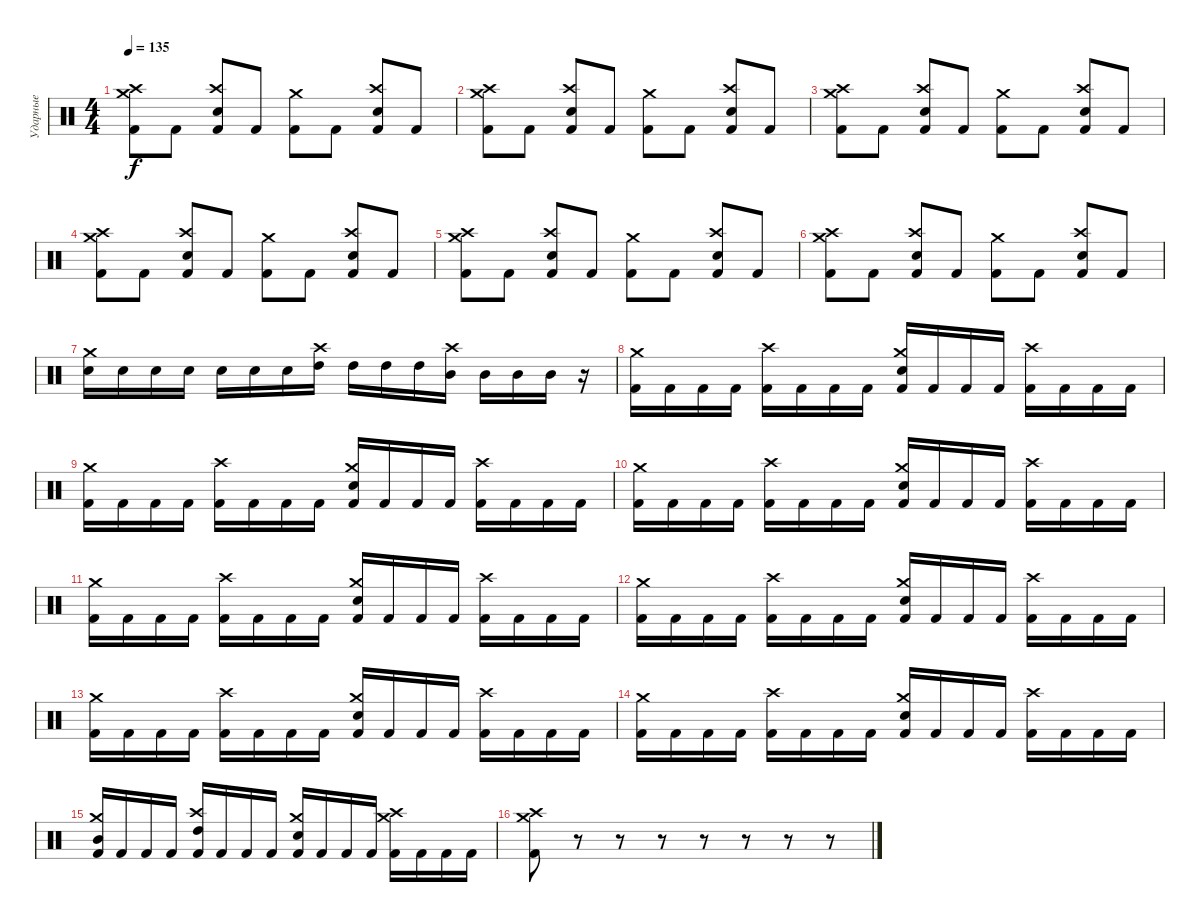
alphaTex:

\track ("Ударные" "Ударные") {instrument percussion}
\staff {score}
\articulation defaults
\ts (4 4)
\tempo 135
\clef neutral
\ks c
("Kick (hit) 2" "Crash medium (hit)" "Crash high (hit)").8{dy f} "Kick (hit) 2".8 ("Kick (hit) 2" "Electric Snare (hit)" "Crash high (hit)").8 "Kick (hit) 2".8 ("Kick (hit) 2" "Crash medium (hit)").8 "Kick (hit) 2".8 ("Kick (hit) 2" "Electric Snare (hit)" "Crash high (hit)").8 "Kick (hit) 2".8 |
("Kick (hit) 2" "Crash medium (hit)" "Crash high (hit)").8 "Kick (hit) 2".8 ("Kick (hit) 2" "Electric Snare (hit)" "Crash high (hit)").8 "Kick (hit) 2".8 ("Kick (hit) 2" "Crash medium (hit)").8 "Kick (hit) 2".8 ("Kick (hit) 2" "Electric Snare (hit)" "Crash high (hit)").8 "Kick (hit) 2".8 |
("Kick (hit) 2" "Crash medium (hit)" "Crash high (hit)").8 "Kick (hit) 2".8 ("Kick (hit) 2" "Electric Snare (hit)" "Crash high (hit)").8 "Kick (hit) 2".8 ("Kick (hit) 2" "Crash medium (hit)").8 "Kick (hit) 2".8 ("Kick (hit) 2" "Electric Snare (hit)" "Crash high (hit)").8 "Kick (hit) 2".8 |
("Kick (hit) 2" "Crash medium (hit)" "Crash high (hit)").8 "Kick (hit) 2".8 ("Kick (hit) 2" "Electric Snare (hit)" "Crash high (hit)").8 "Kick (hit) 2".8 ("Kick (hit) 2" "Crash medium (hit)").8 "Kick (hit) 2".8 ("Kick (hit) 2" "Electric Snare (hit)" "Crash high (hit)").8 "Kick (hit) 2".8 |
("Kick (hit) 2" "Crash medium (hit)" "Crash high (hit)").8 "Kick (hit) 2".8 ("Kick (hit) 2" "Electric Snare (hit)" "Crash high (hit)").8 "Kick (hit) 2".8 ("Kick (hit) 2" "Crash medium (hit)").8 "Kick (hit) 2".8 ("Kick (hit) 2" "Electric Snare (hit)" "Crash high (hit)").8 "Kick (hit) 2".8 |
("Kick (hit) 2" "Crash medium (hit)" "Crash high (hit)").8 "Kick (hit) 2".8 ("Kick (hit) 2" "Electric Snare (hit)" "Crash high (hit)").8 "Kick (hit) 2".8 ("Kick (hit) 2" "Crash medium (hit)").8 "Kick (hit) 2".8 ("Kick (hit) 2" "Electric Snare (hit)" "Crash high (hit)").8 "Kick (hit) 2".8 |
("Electric Snare (hit)" "Crash medium (hit)").16 "Electric Snare (hit)".16 "Electric Snare (hit)".16 "Electric Snare (hit)".16 "Electric Snare (hit)".16 "Electric Snare (hit)".16 "Electric Snare (hit)".16 ("High Tom (hit)" "Crash high (hit)").16 "High Tom (hit)".16 "High Tom (hit)".16 "High Tom (hit)".16 ("Mid Tom (hit)" "Crash high (hit)").16 "Mid Tom (hit)".16 "Mid Tom (hit)".16 "Mid Tom (hit)".16 r.16 |
("Kick (hit) 2" "Crash medium (hit)").16 "Kick (hit) 2".16 "Kick (hit) 2".16 "Kick (hit) 2".16 ("Kick (hit) 2" "Crash high (hit)").16 "Kick (hit) 2".16 "Kick (hit) 2".16 "Kick (hit) 2".16 ("Kick (hit) 2" "Electric Snare (hit)" "Crash medium (hit)").16 "Kick (hit) 2".16 "Kick (hit) 2".16 "Kick (hit) 2".16 ("Kick (hit) 2" "Crash high (hit)").16 "Kick (hit) 2".16 "Kick (hit) 2".16 "Kick (hit) 2".16 |
("Kick (hit) 2" "Crash medium (hit)").16 "Kick (hit) 2".16 "Kick (hit) 2".16 "Kick (hit) 2".16 ("Kick (hit) 2" "Crash high (hit)").16 "Kick (hit) 2".16 "Kick (hit) 2".16 "Kick (hit) 2".16 ("Kick (hit) 2" "Electric Snare (hit)" "Crash medium (hit)").16 "Kick (hit) 2".16 "Kick (hit) 2".16 "Kick (hit) 2".16 ("Kick (hit) 2" "Crash high (hit)").16 "Kick (hit) 2".16 "Kick (hit) 2".16 "Kick (hit) 2".16 |
("Kick (hit) 2" "Crash medium (hit)").16 "Kick (hit) 2".16 "Kick (hit) 2".16 "Kick (hit) 2".16 ("Kick (hit) 2" "Crash high (hit)").16 "Kick (hit) 2".16 "Kick (hit) 2".16 "Kick (hit) 2".16 ("Kick (hit) 2" "Electric Snare (hit)" "Crash medium (hit)").16 "Kick (hit) 2".16 "Kick (hit) 2".16 "Kick (hit) 2".16 ("Kick (hit) 2" "Crash high (hit)").16 "Kick (hit) 2".16 "Kick (hit) 2".16 "Kick (hit) 2".16 |
("Kick (hit) 2" "Crash medium (hit)").16 "Kick (hit) 2".16 "Kick (hit) 2".16 "Kick (hit) 2".16 ("Kick (hit) 2" "Crash high (hit)").16 "Kick (hit) 2".16 "Kick (hit) 2".16 "Kick (hit) 2".16 ("Kick (hit) 2" "Electric Snare (hit)" "Crash medium (hit)").16 "Kick (hit) 2".16 "Kick (hit) 2".16 "Kick (hit) 2".16 ("Kick (hit) 2" "Crash high (hit)").16 "Kick (hit) 2".16 "Kick (hit) 2".16 "Kick (hit) 2".16 |
("Kick (hit) 2" "Crash medium (hit)").16 "Kick (hit) 2".16 "Kick (hit) 2".16 "Kick (hit) 2".16 ("Kick (hit) 2" "Crash high (hit)").16 "Kick (hit) 2".16 "Kick (hit) 2".16 "Kick (hit) 2".16 ("Kick (hit) 2" "Electric Snare (hit)" "Crash medium (hit)").16 "Kick (hit) 2".16 "Kick (hit) 2".16 "Kick (hit) 2".16 ("Kick (hit) 2" "Crash high (hit)").16 "Kick (hit) 2".16 "Kick (hit) 2".16 "Kick (hit) 2".16 |
("Kick (hit) 2" "Crash medium (hit)").16 "Kick (hit) 2".16 "Kick (hit) 2".16 "Kick (hit) 2".16 ("Kick (hit) 2" "Crash high (hit)").16 "Kick (hit) 2".16 "Kick (hit) 2".16 "Kick (hit) 2".16 ("Kick (hit) 2" "Electric Snare (hit)" "Crash medium (hit)").16 "Kick (hit) 2".16 "Kick (hit) 2".16 "Kick (hit) 2".16 ("Kick (hit) 2" "Crash high (hit)").16 "Kick (hit) 2".16 "Kick (hit) 2".16 "Kick (hit) 2".16 |
("Kick (hit) 2" "Crash medium (hit)").16 "Kick (hit) 2".16 "Kick (hit) 2".16 "Kick (hit) 2".16 ("Kick (hit) 2" "Crash high (hit)").16 "Kick (hit) 2".16 "Kick (hit) 2".16 "Kick (hit) 2".16 ("Kick (hit) 2" "Electric Snare (hit)" "Crash medium (hit)").16 "Kick (hit) 2".16 "Kick (hit) 2".16 "Kick (hit) 2".16 ("Kick (hit) 2" "Crash high (hit)").16 "Kick (hit) 2".16 "Kick (hit) 2".16 "Kick (hit) 2".16 |
("Kick (hit) 2" "Mid Tom (hit)" "Crash medium (hit)").16 "Kick (hit) 2".16 "Kick (hit) 2".16 "Kick (hit) 2".16 ("Kick (hit) 2" "High Tom (hit)" "Crash high (hit)").16 "Kick (hit) 2".16 "Kick (hit) 2".16 "Kick (hit) 2".16 ("Kick (hit) 2" "Electric Snare (hit)" "Crash medium (hit)").16 "Kick (hit) 2".16 "Kick (hit) 2".16 "Kick (hit) 2".16 ("Kick (hit) 2" "Crash medium (hit)" "Crash high (hit)").16 "Kick (hit) 2".16 "Kick (hit) 2".16 "Kick (hit) 2".16 |
("Kick (hit) 2" "Crash medium (hit)" "Crash high (hit)").8 r.8 r.8 r.8 r.8 r.8 r.8 r.8
